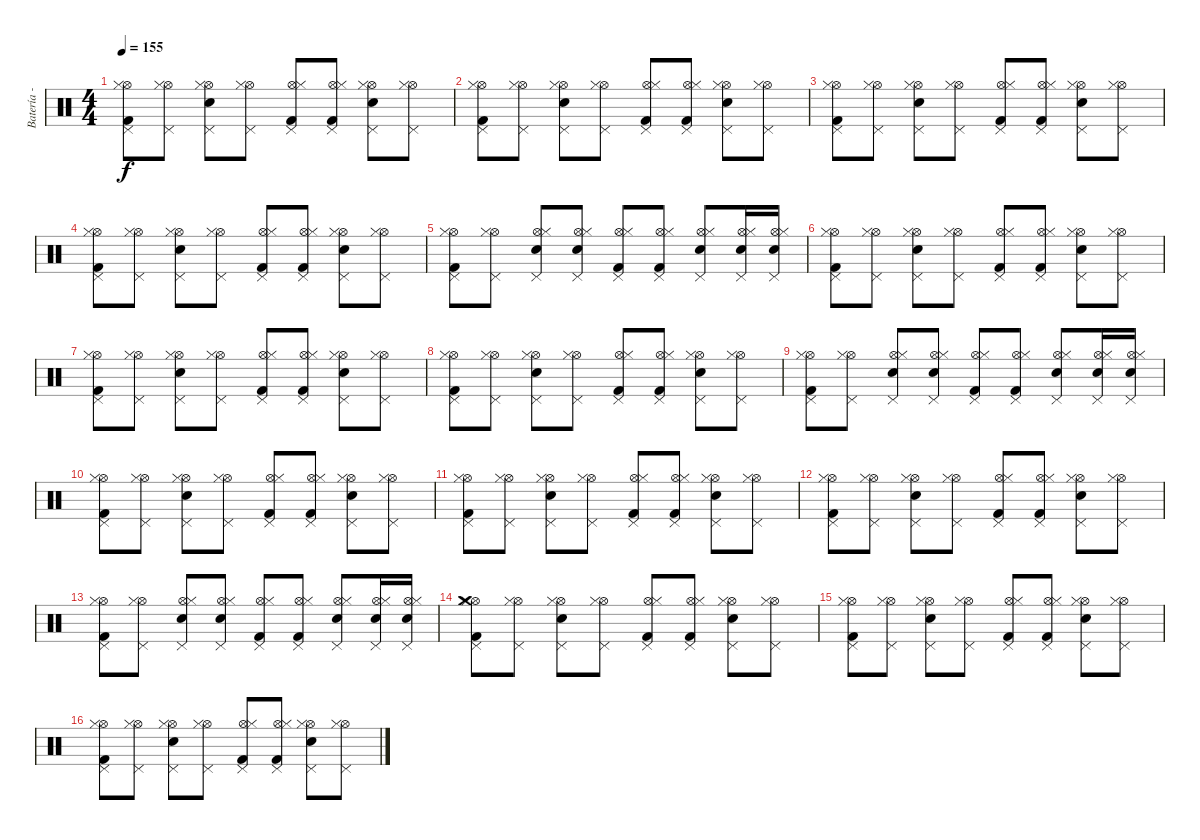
\track ("Batería - Edu" "Batería - ") {instrument percussion}
\staff {score}
\articulation defaults
\ts (4 4)
\tempo 155
\clef neutral
\ks c
("Pedal Hi-Hat (hit)" "Hi-Hat (open)" "Hi-Hat (closed)" "Kick (hit) 2").8{dy f} ("Pedal Hi-Hat (hit)" "Hi-Hat (open)" "Hi-Hat (closed)").8 ("Pedal Hi-Hat (hit)" "Hi-Hat (open)" "Hi-Hat (closed)" "Electric Snare (hit)").8 ("Pedal Hi-Hat (hit)" "Hi-Hat (open)" "Hi-Hat (closed)").8 ("Pedal Hi-Hat (hit)" "Hi-Hat (open)" "Hi-Hat (closed)" "Kick (hit) 2").8 ("Pedal Hi-Hat (hit)" "Hi-Hat (open)" "Hi-Hat (closed)" "Kick (hit) 2").8 ("Pedal Hi-Hat (hit)" "Hi-Hat (open)" "Hi-Hat (closed)" "Electric Snare (hit)").8 ("Pedal Hi-Hat (hit)" "Hi-Hat (open)" "Hi-Hat (closed)").8 |
("Pedal Hi-Hat (hit)" "Hi-Hat (open)" "Hi-Hat (closed)" "Kick (hit) 2").8 ("Pedal Hi-Hat (hit)" "Hi-Hat (open)" "Hi-Hat (closed)").8 ("Pedal Hi-Hat (hit)" "Hi-Hat (open)" "Hi-Hat (closed)" "Electric Snare (hit)").8 ("Pedal Hi-Hat (hit)" "Hi-Hat (open)" "Hi-Hat (closed)").8 ("Pedal Hi-Hat (hit)" "Hi-Hat (open)" "Hi-Hat (closed)" "Kick (hit) 2").8 ("Pedal Hi-Hat (hit)" "Hi-Hat (open)" "Hi-Hat (closed)" "Kick (hit) 2").8 ("Pedal Hi-Hat (hit)" "Hi-Hat (open)" "Hi-Hat (closed)" "Electric Snare (hit)").8 ("Pedal Hi-Hat (hit)" "Hi-Hat (open)" "Hi-Hat (closed)").8 |
("Pedal Hi-Hat (hit)" "Hi-Hat (open)" "Hi-Hat (closed)" "Kick (hit) 2").8 ("Pedal Hi-Hat (hit)" "Hi-Hat (open)" "Hi-Hat (closed)").8 ("Pedal Hi-Hat (hit)" "Hi-Hat (open)" "Hi-Hat (closed)" "Electric Snare (hit)").8 ("Pedal Hi-Hat (hit)" "Hi-Hat (open)" "Hi-Hat (closed)").8 ("Pedal Hi-Hat (hit)" "Hi-Hat (open)" "Hi-Hat (closed)" "Kick (hit) 2").8 ("Pedal Hi-Hat (hit)" "Hi-Hat (open)" "Hi-Hat (closed)" "Kick (hit) 2").8 ("Pedal Hi-Hat (hit)" "Hi-Hat (open)" "Hi-Hat (closed)" "Electric Snare (hit)").8 ("Pedal Hi-Hat (hit)" "Hi-Hat (open)" "Hi-Hat (closed)").8 |
("Pedal Hi-Hat (hit)" "Hi-Hat (open)" "Hi-Hat (closed)" "Kick (hit) 2").8 ("Pedal Hi-Hat (hit)" "Hi-Hat (open)" "Hi-Hat (closed)").8 ("Pedal Hi-Hat (hit)" "Hi-Hat (open)" "Hi-Hat (closed)" "Electric Snare (hit)").8 ("Pedal Hi-Hat (hit)" "Hi-Hat (open)" "Hi-Hat (closed)").8 ("Pedal Hi-Hat (hit)" "Hi-Hat (open)" "Hi-Hat (closed)" "Kick (hit) 2").8 ("Pedal Hi-Hat (hit)" "Hi-Hat (open)" "Hi-Hat (closed)" "Kick (hit) 2").8 ("Pedal Hi-Hat (hit)" "Hi-Hat (open)" "Hi-Hat (closed)" "Electric Snare (hit)").8 ("Pedal Hi-Hat (hit)" "Hi-Hat (open)" "Hi-Hat (closed)").8 |
("Hi-Hat (open)" "Pedal Hi-Hat (hit)" "Hi-Hat (closed)" "Kick (hit) 2").8 ("Hi-Hat (open)" "Pedal Hi-Hat (hit)" "Hi-Hat (closed)").8 ("Hi-Hat (open)" "Pedal Hi-Hat (hit)" "Hi-Hat (closed)" "Electric Snare (hit)").8 ("Hi-Hat (open)" "Pedal Hi-Hat (hit)" "Hi-Hat (closed)" "Electric Snare (hit)").8 ("Hi-Hat (open)" "Pedal Hi-Hat (hit)" "Hi-Hat (closed)" "Kick (hit) 2").8 ("Hi-Hat (open)" "Pedal Hi-Hat (hit)" "Hi-Hat (closed)" "Kick (hit) 2").8 ("Hi-Hat (open)" "Pedal Hi-Hat (hit)" "Hi-Hat (closed)" "Electric Snare (hit)").8 ("Hi-Hat (open)" "Pedal Hi-Hat (hit)" "Hi-Hat (closed)" "Snare (hit) 2").16 ("Hi-Hat (open)" "Pedal Hi-Hat (hit)" "Hi-Hat (closed)" "Electric Snare (hit)").16 |
("Pedal Hi-Hat (hit)" "Hi-Hat (open)" "Hi-Hat (closed)" "Kick (hit) 2").8 ("Pedal Hi-Hat (hit)" "Hi-Hat (open)" "Hi-Hat (closed)").8 ("Pedal Hi-Hat (hit)" "Hi-Hat (open)" "Hi-Hat (closed)" "Electric Snare (hit)").8 ("Pedal Hi-Hat (hit)" "Hi-Hat (open)" "Hi-Hat (closed)").8 ("Pedal Hi-Hat (hit)" "Hi-Hat (open)" "Hi-Hat (closed)" "Kick (hit) 2").8 ("Pedal Hi-Hat (hit)" "Hi-Hat (open)" "Hi-Hat (closed)" "Kick (hit) 2").8 ("Pedal Hi-Hat (hit)" "Hi-Hat (open)" "Hi-Hat (closed)" "Electric Snare (hit)").8 ("Pedal Hi-Hat (hit)" "Hi-Hat (open)" "Hi-Hat (closed)").8 |
("Pedal Hi-Hat (hit)" "Hi-Hat (open)" "Hi-Hat (closed)" "Kick (hit) 2").8 ("Pedal Hi-Hat (hit)" "Hi-Hat (open)" "Hi-Hat (closed)").8 ("Pedal Hi-Hat (hit)" "Hi-Hat (open)" "Hi-Hat (closed)" "Electric Snare (hit)").8 ("Pedal Hi-Hat (hit)" "Hi-Hat (open)" "Hi-Hat (closed)").8 ("Pedal Hi-Hat (hit)" "Hi-Hat (open)" "Hi-Hat (closed)" "Kick (hit) 2").8 ("Pedal Hi-Hat (hit)" "Hi-Hat (open)" "Hi-Hat (closed)" "Kick (hit) 2").8 ("Pedal Hi-Hat (hit)" "Hi-Hat (open)" "Hi-Hat (closed)" "Electric Snare (hit)").8 ("Pedal Hi-Hat (hit)" "Hi-Hat (open)" "Hi-Hat (closed)").8 |
("Pedal Hi-Hat (hit)" "Hi-Hat (open)" "Hi-Hat (closed)" "Kick (hit) 2").8 ("Pedal Hi-Hat (hit)" "Hi-Hat (open)" "Hi-Hat (closed)").8 ("Pedal Hi-Hat (hit)" "Hi-Hat (open)" "Hi-Hat (closed)" "Electric Snare (hit)").8 ("Pedal Hi-Hat (hit)" "Hi-Hat (open)" "Hi-Hat (closed)").8 ("Pedal Hi-Hat (hit)" "Hi-Hat (open)" "Hi-Hat (closed)" "Kick (hit) 2").8 ("Pedal Hi-Hat (hit)" "Hi-Hat (open)" "Hi-Hat (closed)" "Kick (hit) 2").8 ("Pedal Hi-Hat (hit)" "Hi-Hat (open)" "Hi-Hat (closed)" "Electric Snare (hit)").8 ("Pedal Hi-Hat (hit)" "Hi-Hat (open)" "Hi-Hat (closed)").8 |
("Hi-Hat (open)" "Pedal Hi-Hat (hit)" "Hi-Hat (closed)" "Kick (hit) 2").8 ("Hi-Hat (open)" "Pedal Hi-Hat (hit)" "Hi-Hat (closed)").8 ("Hi-Hat (open)" "Pedal Hi-Hat (hit)" "Hi-Hat (closed)" "Electric Snare (hit)").8 ("Hi-Hat (open)" "Pedal Hi-Hat (hit)" "Hi-Hat (closed)" "Electric Snare (hit)").8 ("Hi-Hat (open)" "Pedal Hi-Hat (hit)" "Hi-Hat (closed)" "Kick (hit) 2").8 ("Hi-Hat (open)" "Pedal Hi-Hat (hit)" "Hi-Hat (closed)" "Kick (hit) 2").8 ("Hi-Hat (open)" "Pedal Hi-Hat (hit)" "Hi-Hat (closed)" "Electric Snare (hit)").8 ("Hi-Hat (open)" "Pedal Hi-Hat (hit)" "Hi-Hat (closed)" "Snare (hit) 2").16 ("Hi-Hat (open)" "Pedal Hi-Hat (hit)" "Hi-Hat (closed)" "Electric Snare (hit)").16 |
("Pedal Hi-Hat (hit)" "Hi-Hat (open)" "Hi-Hat (closed)" "Kick (hit) 2").8 ("Pedal Hi-Hat (hit)" "Hi-Hat (open)" "Hi-Hat (closed)").8 ("Pedal Hi-Hat (hit)" "Hi-Hat (open)" "Hi-Hat (closed)" "Electric Snare (hit)").8 ("Pedal Hi-Hat (hit)" "Hi-Hat (open)" "Hi-Hat (closed)").8 ("Pedal Hi-Hat (hit)" "Hi-Hat (open)" "Hi-Hat (closed)" "Kick (hit) 2").8 ("Pedal Hi-Hat (hit)" "Hi-Hat (open)" "Hi-Hat (closed)" "Kick (hit) 2").8 ("Pedal Hi-Hat (hit)" "Hi-Hat (open)" "Hi-Hat (closed)" "Electric Snare (hit)").8 ("Pedal Hi-Hat (hit)" "Hi-Hat (open)" "Hi-Hat (closed)").8 |
("Pedal Hi-Hat (hit)" "Hi-Hat (open)" "Hi-Hat (closed)" "Kick (hit) 2").8 ("Pedal Hi-Hat (hit)" "Hi-Hat (open)" "Hi-Hat (closed)").8 ("Pedal Hi-Hat (hit)" "Hi-Hat (open)" "Hi-Hat (closed)" "Electric Snare (hit)").8 ("Pedal Hi-Hat (hit)" "Hi-Hat (open)" "Hi-Hat (closed)").8 ("Pedal Hi-Hat (hit)" "Hi-Hat (open)" "Hi-Hat (closed)" "Kick (hit) 2").8 ("Pedal Hi-Hat (hit)" "Hi-Hat (open)" "Hi-Hat (closed)" "Kick (hit) 2").8 ("Pedal Hi-Hat (hit)" "Hi-Hat (open)" "Hi-Hat (closed)" "Electric Snare (hit)").8 ("Pedal Hi-Hat (hit)" "Hi-Hat (open)" "Hi-Hat (closed)").8 |
("Pedal Hi-Hat (hit)" "Hi-Hat (open)" "Hi-Hat (closed)" "Kick (hit) 2").8 ("Pedal Hi-Hat (hit)" "Hi-Hat (open)" "Hi-Hat (closed)").8 ("Pedal Hi-Hat (hit)" "Hi-Hat (open)" "Hi-Hat (closed)" "Electric Snare (hit)").8 ("Pedal Hi-Hat (hit)" "Hi-Hat (open)" "Hi-Hat (closed)").8 ("Pedal Hi-Hat (hit)" "Hi-Hat (open)" "Hi-Hat (closed)" "Kick (hit) 2").8 ("Pedal Hi-Hat (hit)" "Hi-Hat (open)" "Hi-Hat (closed)" "Kick (hit) 2").8 ("Pedal Hi-Hat (hit)" "Hi-Hat (open)" "Hi-Hat (closed)" "Electric Snare (hit)").8 ("Pedal Hi-Hat (hit)" "Hi-Hat (open)" "Hi-Hat (closed)").8 |
("Hi-Hat (open)" "Pedal Hi-Hat (hit)" "Hi-Hat (closed)" "Kick (hit) 2").8 ("Hi-Hat (open)" "Pedal Hi-Hat (hit)" "Hi-Hat (closed)").8 ("Hi-Hat (open)" "Pedal Hi-Hat (hit)" "Hi-Hat (closed)" "Electric Snare (hit)").8 ("Hi-Hat (open)" "Pedal Hi-Hat (hit)" "Hi-Hat (closed)" "Electric Snare (hit)").8 ("Hi-Hat (open)" "Pedal Hi-Hat (hit)" "Hi-Hat (closed)" "Kick (hit) 2").8 ("Hi-Hat (open)" "Pedal Hi-Hat (hit)" "Hi-Hat (closed)" "Kick (hit) 2").8 ("Hi-Hat (open)" "Pedal Hi-Hat (hit)" "Hi-Hat (closed)" "Electric Snare (hit)").8 ("Hi-Hat (open)" "Pedal Hi-Hat (hit)" "Hi-Hat (closed)" "Snare (hit) 2").16 ("Hi-Hat (open)" "Pedal Hi-Hat (hit)" "Hi-Hat (closed)" "Electric Snare (hit)").16 |
("Hi-Hat (open)" "Pedal Hi-Hat (hit)" "Hi-Hat (closed)" "Kick (hit) 2" "Crash medium (hit)").8 ("Hi-Hat (open)" "Pedal Hi-Hat (hit)" "Hi-Hat (closed)").8 ("Hi-Hat (open)" "Pedal Hi-Hat (hit)" "Hi-Hat (closed)" "Electric Snare (hit)").8 ("Hi-Hat (open)" "Pedal Hi-Hat (hit)" "Hi-Hat (closed)").8 ("Hi-Hat (open)" "Pedal Hi-Hat (hit)" "Hi-Hat (closed)" "Kick (hit) 2").8 ("Hi-Hat (open)" "Pedal Hi-Hat (hit)" "Hi-Hat (closed)" "Kick (hit) 2").8 ("Hi-Hat (open)" "Pedal Hi-Hat (hit)" "Hi-Hat (closed)" "Electric Snare (hit)").8 ("Hi-Hat (open)" "Pedal Hi-Hat (hit)" "Hi-Hat (closed)").8 |
("Hi-Hat (open)" "Pedal Hi-Hat (hit)" "Hi-Hat (closed)" "Kick (hit) 2").8 ("Hi-Hat (open)" "Pedal Hi-Hat (hit)" "Hi-Hat (closed)").8 ("Hi-Hat (open)" "Pedal Hi-Hat (hit)" "Hi-Hat (closed)" "Electric Snare (hit)").8 ("Hi-Hat (open)" "Pedal Hi-Hat (hit)" "Hi-Hat (closed)").8 ("Hi-Hat (open)" "Pedal Hi-Hat (hit)" "Hi-Hat (closed)" "Kick (hit) 2").8 ("Hi-Hat (open)" "Pedal Hi-Hat (hit)" "Hi-Hat (closed)" "Kick (hit) 2").8 ("Hi-Hat (open)" "Pedal Hi-Hat (hit)" "Hi-Hat (closed)" "Electric Snare (hit)").8 ("Hi-Hat (open)" "Pedal Hi-Hat (hit)" "Hi-Hat (closed)").8 |
("Hi-Hat (open)" "Pedal Hi-Hat (hit)" "Hi-Hat (closed)" "Kick (hit) 2").8 ("Hi-Hat (open)" "Pedal Hi-Hat (hit)" "Hi-Hat (closed)").8 ("Hi-Hat (open)" "Pedal Hi-Hat (hit)" "Hi-Hat (closed)" "Electric Snare (hit)").8 ("Hi-Hat (open)" "Pedal Hi-Hat (hit)" "Hi-Hat (closed)").8 ("Hi-Hat (open)" "Pedal Hi-Hat (hit)" "Hi-Hat (closed)" "Kick (hit) 2").8 ("Hi-Hat (open)" "Pedal Hi-Hat (hit)" "Hi-Hat (closed)" "Kick (hit) 2").8 ("Hi-Hat (open)" "Pedal Hi-Hat (hit)" "Hi-Hat (closed)" "Electric Snare (hit)").8 ("Hi-Hat (open)" "Pedal Hi-Hat (hit)" "Hi-Hat (closed)").8
